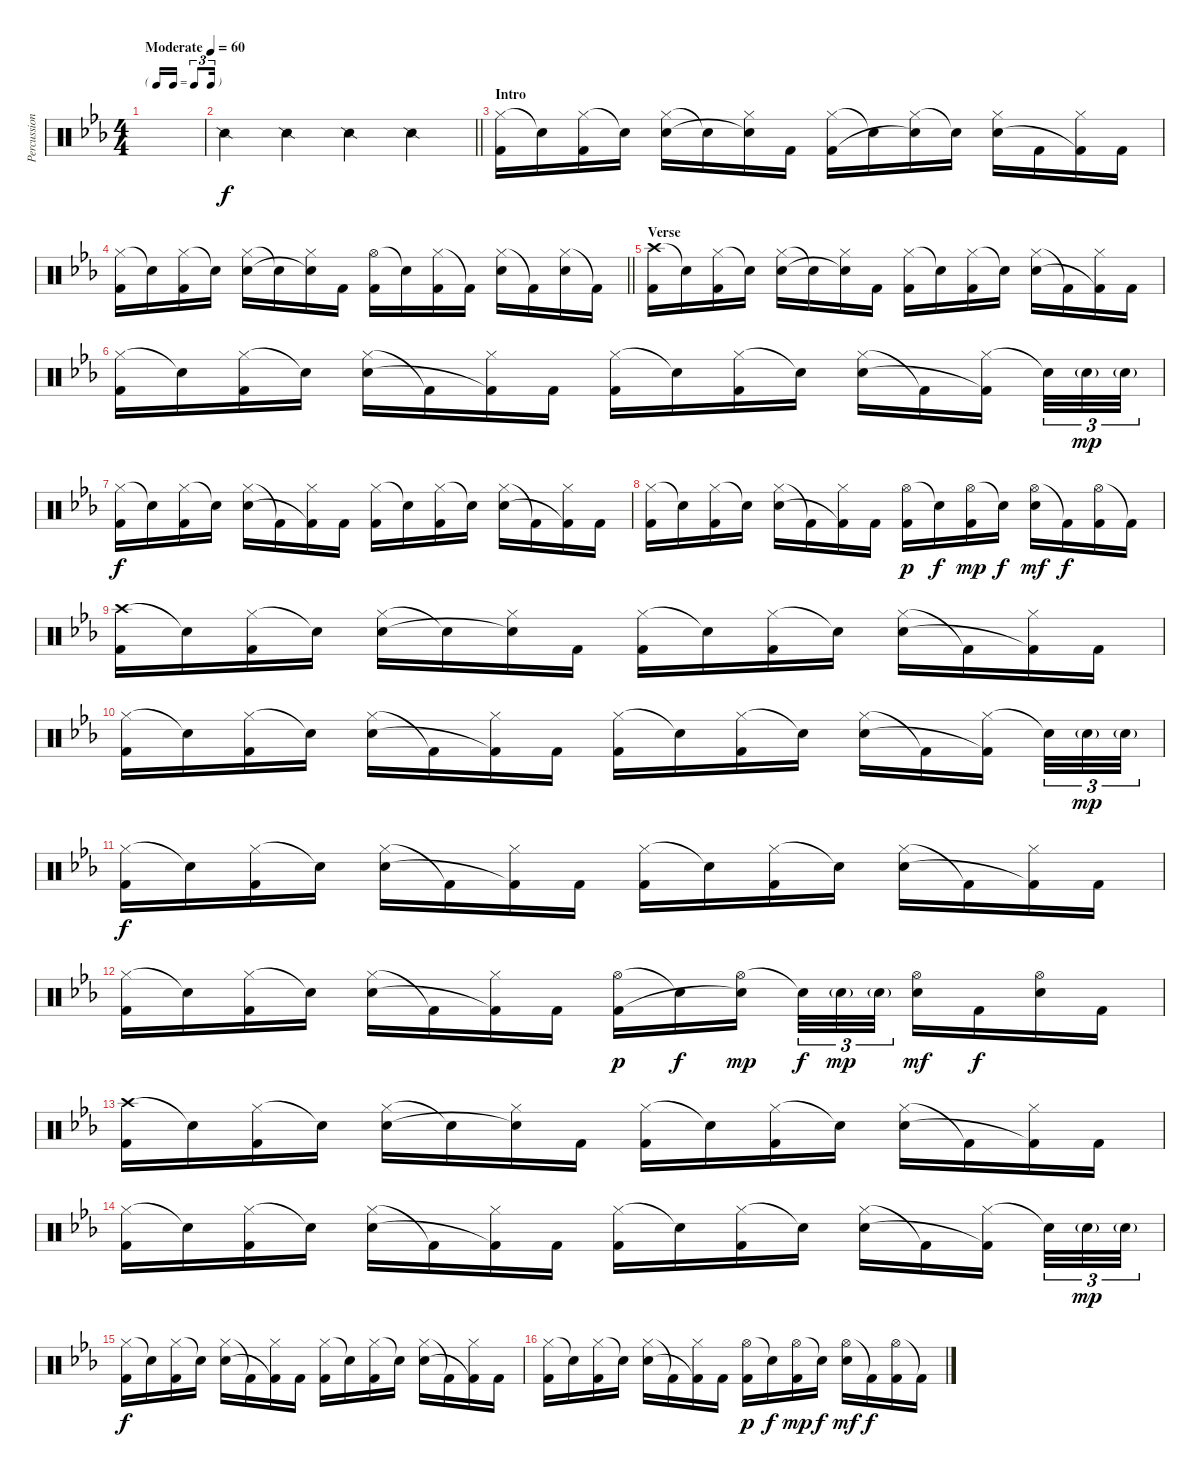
\track ("Percussioni" "Percussion") {instrument percussion}
\staff {score}
\articulation defaults
\ts (4 4)
\tf triplet16th
\tempo (60 "Moderate")
\clef neutral
\ks cminor
|
\barLineRight lightlight "Snare (side stick) 2".4 "Snare (side stick) 2".4 "Snare (side stick) 2".4 "Snare (side stick) 2".4
|
\section ("" "Intro")
("Hi-Hat (closed)" "Kick (hit) 2").16 "Snare (hit)"{t}.16 ("Hi-Hat (closed)" "Kick (hit) 2").16 "Snare (hit)"{t}.16 ("Hi-Hat (closed)" "Snare (hit) 2").16 "Snare (hit)"{t}.16 ("Hi-Hat (closed)" "Snare (hit)"{t}).16 "Kick (hit) 2".16 ("Hi-Hat (closed)" "Kick (hit) 2").16 "Snare (hit)"{t}.16 ("Hi-Hat (closed)" "Snare (hit)"{t}).16 "Snare (hit)"{t}.16 ("Hi-Hat (closed)" "Snare (hit) 2").16 "Kick (hit) 2".16 ("Hi-Hat (closed)" "Kick (hit) 2"{t}).16 "Kick (hit) 2".16 |
\barLineRight lightlight
("Hi-Hat (closed)" "Kick (hit) 2").16 "Snare (hit)"{t}.16 ("Hi-Hat (closed)" "Kick (hit) 2").16 "Snare (hit)"{t}.16 ("Hi-Hat (closed)" "Snare (hit) 2").16 "Snare (hit)"{t}.16 ("Hi-Hat (closed)" "Snare (hit)"{t}).16 "Kick (hit) 2".16 ("Hi-Hat (open)" "Kick (hit) 2").16 "Snare (hit)"{t}.16 ("Hi-Hat (closed)" "Kick (hit) 2").16 "Kick (hit) 2"{t}.16 ("Hi-Hat (closed)" "Snare (hit) 2").16 "Kick (hit) 2"{t}.16 ("Hi-Hat (closed)" "Snare (hit) 2").16 "Kick (hit) 2"{t}.16 |
\section ("" "Verse")
("Crash high (hit)" "Kick (hit) 2").16 "Snare (hit)"{t}.16 ("Hi-Hat (closed)" "Kick (hit) 2").16 "Snare (hit)"{t}.16 ("Hi-Hat (closed)" "Snare (hit) 2").16 "Snare (hit)"{t}.16 ("Hi-Hat (closed)" "Snare (hit)"{t}).16 "Kick (hit) 2".16 ("Hi-Hat (closed)" "Kick (hit) 2").16 "Snare (hit)"{t}.16 ("Hi-Hat (closed)" "Kick (hit) 2").16 "Snare (hit)"{t}.16 ("Hi-Hat (closed)" "Snare (hit) 2").16 "Kick (hit) 2"{t}.16 ("Hi-Hat (closed)" "Kick (hit) 2"{t}).16 "Kick (hit) 2".16 |
("Hi-Hat (closed)" "Kick (hit) 2").16 "Snare (hit)"{t}.16 ("Hi-Hat (closed)" "Kick (hit) 2").16 "Snare (hit)"{t}.16 ("Hi-Hat (closed)" "Snare (hit) 2").16 "Kick (hit) 2"{t}.16 ("Hi-Hat (closed)" "Kick (hit) 2"{t}).16 "Kick (hit) 2".16 ("Hi-Hat (closed)" "Kick (hit) 2").16 "Snare (hit)"{t}.16 ("Hi-Hat (closed)" "Kick (hit) 2").16 "Snare (hit)"{t}.16 ("Hi-Hat (closed)" "Snare (hit) 2").16 "Kick (hit) 2"{t}.16 ("Hi-Hat (closed)" "Kick (hit) 2"{t}).16{beam splitsecondary} "Snare (hit) 2"{t}.32{tu (3 2)} "Snare (hit) 2"{g}.32{tu (3 2) dy mp} "Snare (hit) 2"{g}.32{tu (3 2)} |
("Hi-Hat (closed)" "Kick (hit) 2").16{dy f} "Snare (hit)"{t}.16 ("Hi-Hat (closed)" "Kick (hit) 2").16 "Snare (hit)"{t}.16 ("Hi-Hat (closed)" "Snare (hit) 2").16 "Kick (hit) 2"{t}.16 ("Hi-Hat (closed)" "Kick (hit) 2"{t}).16 "Kick (hit) 2".16 ("Hi-Hat (closed)" "Kick (hit) 2").16 "Snare (hit)"{t}.16 ("Hi-Hat (closed)" "Kick (hit) 2").16 "Snare (hit)"{t}.16 ("Hi-Hat (closed)" "Snare (hit) 2").16 "Kick (hit) 2"{t}.16 ("Hi-Hat (closed)" "Kick (hit) 2"{t}).16 "Kick (hit) 2".16 |
("Hi-Hat (closed)" "Kick (hit) 2").16 "Snare (hit)"{t}.16 ("Hi-Hat (closed)" "Kick (hit) 2").16 "Snare (hit)"{t}.16 ("Hi-Hat (closed)" "Snare (hit) 2").16 "Kick (hit) 2"{t}.16 ("Hi-Hat (closed)" "Kick (hit) 2"{t}).16 "Kick (hit) 2".16 ("Hi-Hat (open)" "Kick (hit) 2").16{dy p} "Snare (hit)"{t}.16{dy f} ("Hi-Hat (open)" "Kick (hit) 2").16{dy mp} "Snare (hit)"{t}.16{dy f} ("Hi-Hat (open)" "Snare (hit) 2").16{dy mf} "Kick (hit) 2"{t}.16{dy f} ("Hi-Hat (open)" "Kick (hit) 2").16 "Kick (hit) 2"{t}.16 |
("Crash high (hit)" "Kick (hit) 2").16 "Snare (hit)"{t}.16 ("Hi-Hat (closed)" "Kick (hit) 2").16 "Snare (hit)"{t}.16 ("Hi-Hat (closed)" "Snare (hit) 2").16 "Snare (hit)"{t}.16 ("Hi-Hat (closed)" "Snare (hit)"{t}).16 "Kick (hit) 2".16 ("Hi-Hat (closed)" "Kick (hit) 2").16 "Snare (hit)"{t}.16 ("Hi-Hat (closed)" "Kick (hit) 2").16 "Snare (hit)"{t}.16 ("Hi-Hat (closed)" "Snare (hit) 2").16 "Kick (hit) 2"{t}.16 ("Hi-Hat (closed)" "Kick (hit) 2"{t}).16 "Kick (hit) 2".16 |
("Hi-Hat (closed)" "Kick (hit) 2").16 "Snare (hit)"{t}.16 ("Hi-Hat (closed)" "Kick (hit) 2").16 "Snare (hit)"{t}.16 ("Hi-Hat (closed)" "Snare (hit) 2").16 "Kick (hit) 2"{t}.16 ("Hi-Hat (closed)" "Kick (hit) 2"{t}).16 "Kick (hit) 2".16 ("Hi-Hat (closed)" "Kick (hit) 2").16 "Snare (hit)"{t}.16 ("Hi-Hat (closed)" "Kick (hit) 2").16 "Snare (hit)"{t}.16 ("Hi-Hat (closed)" "Snare (hit) 2").16 "Kick (hit) 2"{t}.16 ("Hi-Hat (closed)" "Kick (hit) 2"{t}).16{beam splitsecondary} "Snare (hit) 2"{t}.32{tu (3 2)} "Snare (hit) 2"{g}.32{tu (3 2) dy mp} "Snare (hit) 2"{g}.32{tu (3 2)} |
("Hi-Hat (closed)" "Kick (hit) 2").16{dy f} "Snare (hit)"{t}.16 ("Hi-Hat (closed)" "Kick (hit) 2").16 "Snare (hit)"{t}.16 ("Hi-Hat (closed)" "Snare (hit) 2").16 "Kick (hit) 2"{t}.16 ("Hi-Hat (closed)" "Kick (hit) 2"{t}).16 "Kick (hit) 2".16 ("Hi-Hat (closed)" "Kick (hit) 2").16 "Snare (hit)"{t}.16 ("Hi-Hat (closed)" "Kick (hit) 2").16 "Snare (hit)"{t}.16 ("Hi-Hat (closed)" "Snare (hit) 2").16 "Kick (hit) 2"{t}.16 ("Hi-Hat (closed)" "Kick (hit) 2"{t}).16 "Kick (hit) 2".16 |
("Hi-Hat (closed)" "Kick (hit) 2").16 "Snare (hit)"{t}.16 ("Hi-Hat (closed)" "Kick (hit) 2").16 "Snare (hit)"{t}.16 ("Hi-Hat (closed)" "Snare (hit) 2").16 "Kick (hit) 2"{t}.16 ("Hi-Hat (closed)" "Kick (hit) 2"{t}).16 "Kick (hit) 2".16 ("Hi-Hat (open)" "Kick (hit) 2").16{dy p} "Snare (hit)"{t}.16{dy f} ("Hi-Hat (open)" "Snare (hit)"{t}).16{dy mp beam splitsecondary} "Snare (hit) 2"{t}.32{tu (3 2) dy f} "Snare (hit) 2"{g}.32{tu (3 2) dy mp} "Snare (hit) 2"{g}.32{tu (3 2)} ("Hi-Hat (open)" "Snare (hit) 2").16{dy mf} "Kick (hit) 2".16{dy f} ("Hi-Hat (open)" "Snare (hit) 2").16 "Kick (hit) 2".16 |
("Crash high (hit)" "Kick (hit) 2").16 "Snare (hit)"{t}.16 ("Hi-Hat (closed)" "Kick (hit) 2").16 "Snare (hit)"{t}.16 ("Hi-Hat (closed)" "Snare (hit) 2").16 "Snare (hit)"{t}.16 ("Hi-Hat (closed)" "Snare (hit)"{t}).16 "Kick (hit) 2".16 ("Hi-Hat (closed)" "Kick (hit) 2").16 "Snare (hit)"{t}.16 ("Hi-Hat (closed)" "Kick (hit) 2").16 "Snare (hit)"{t}.16 ("Hi-Hat (closed)" "Snare (hit) 2").16 "Kick (hit) 2"{t}.16 ("Hi-Hat (closed)" "Kick (hit) 2"{t}).16 "Kick (hit) 2".16 |
("Hi-Hat (closed)" "Kick (hit) 2").16 "Snare (hit)"{t}.16 ("Hi-Hat (closed)" "Kick (hit) 2").16 "Snare (hit)"{t}.16 ("Hi-Hat (closed)" "Snare (hit) 2").16 "Kick (hit) 2"{t}.16 ("Hi-Hat (closed)" "Kick (hit) 2"{t}).16 "Kick (hit) 2".16 ("Hi-Hat (closed)" "Kick (hit) 2").16 "Snare (hit)"{t}.16 ("Hi-Hat (closed)" "Kick (hit) 2").16 "Snare (hit)"{t}.16 ("Hi-Hat (closed)" "Snare (hit) 2").16 "Kick (hit) 2"{t}.16 ("Hi-Hat (closed)" "Kick (hit) 2"{t}).16{beam splitsecondary} "Snare (hit) 2"{t}.32{tu (3 2)} "Snare (hit) 2"{g}.32{tu (3 2) dy mp} "Snare (hit) 2"{g}.32{tu (3 2)} |
("Hi-Hat (closed)" "Kick (hit) 2").16{dy f} "Snare (hit)"{t}.16 ("Hi-Hat (closed)" "Kick (hit) 2").16 "Snare (hit)"{t}.16 ("Hi-Hat (closed)" "Snare (hit) 2").16 "Kick (hit) 2"{t}.16 ("Hi-Hat (closed)" "Kick (hit) 2"{t}).16 "Kick (hit) 2".16 ("Hi-Hat (closed)" "Kick (hit) 2").16 "Snare (hit)"{t}.16 ("Hi-Hat (closed)" "Kick (hit) 2").16 "Snare (hit)"{t}.16 ("Hi-Hat (closed)" "Snare (hit) 2").16 "Kick (hit) 2"{t}.16 ("Hi-Hat (closed)" "Kick (hit) 2"{t}).16 "Kick (hit) 2".16 |
("Hi-Hat (closed)" "Kick (hit) 2").16 "Snare (hit)"{t}.16 ("Hi-Hat (closed)" "Kick (hit) 2").16 "Snare (hit)"{t}.16 ("Hi-Hat (closed)" "Snare (hit) 2").16 "Kick (hit) 2"{t}.16 ("Hi-Hat (closed)" "Kick (hit) 2"{t}).16 "Kick (hit) 2".16 ("Hi-Hat (open)" "Kick (hit) 2").16{dy p} "Snare (hit)"{t}.16{dy f} ("Hi-Hat (open)" "Kick (hit) 2").16{dy mp} "Snare (hit)"{t}.16{dy f} ("Hi-Hat (open)" "Snare (hit) 2").16{dy mf} "Kick (hit) 2"{t}.16{dy f} ("Hi-Hat (open)" "Kick (hit) 2").16 "Kick (hit) 2"{t}.16
